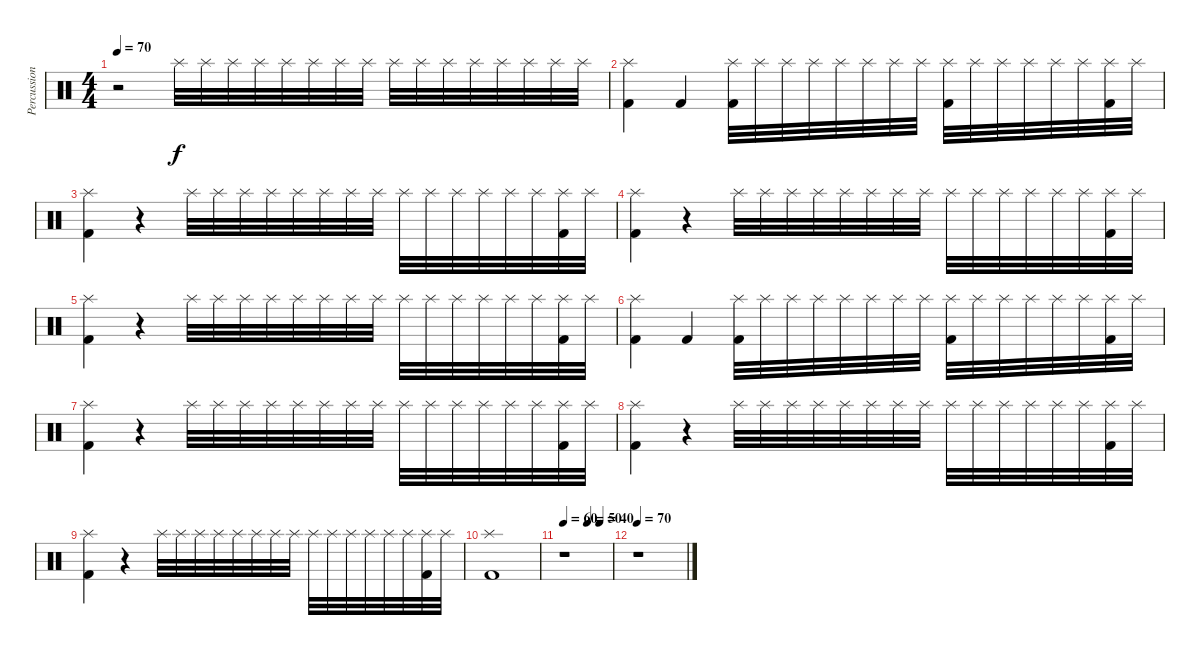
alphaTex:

\track ("Percussion" "Percussion") {instrument percussion}
\staff {score}
\articulation defaults
\ts (4 4)
\tempo 70
\clef neutral
\ks c
r.2{dy f volume 0} "Splash (hit)".32{volume 16} "Splash (hit)".32 "Splash (hit)".32 "Splash (hit)".32 "Splash (hit)".32 "Splash (hit)".32 "Splash (hit)".32 "Splash (hit)".32 "Splash (hit)".32 "Splash (hit)".32 "Splash (hit)".32 "Splash (hit)".32 "Splash (hit)".32 "Splash (hit)".32 "Splash (hit)".32 "Splash (hit)".32 |
("Splash (hit)" "Kick (hit) 2").4 "Kick (hit) 2".4{volume 0} ("Splash (hit)" "Kick (hit) 2").32{volume 16} "Splash (hit)".32 "Splash (hit)".32 "Splash (hit)".32 "Splash (hit)".32 "Splash (hit)".32 "Splash (hit)".32 "Splash (hit)".32 ("Splash (hit)" "Kick (hit) 2").32 "Splash (hit)".32 "Splash (hit)".32 "Splash (hit)".32 "Splash (hit)".32 "Splash (hit)".32 ("Splash (hit)" "Kick (hit) 2").32 "Splash (hit)".32 |
("Splash (hit)" "Kick (hit) 2").4 r.4{volume 0} "Splash (hit)".32{volume 16} "Splash (hit)".32 "Splash (hit)".32 "Splash (hit)".32 "Splash (hit)".32 "Splash (hit)".32 "Splash (hit)".32 "Splash (hit)".32 "Splash (hit)".32 "Splash (hit)".32 "Splash (hit)".32 "Splash (hit)".32 "Splash (hit)".32 "Splash (hit)".32 ("Splash (hit)" "Kick (hit) 2").32 "Splash (hit)".32 |
("Splash (hit)" "Kick (hit) 2").4 r.4{volume 0} "Splash (hit)".32{volume 16} "Splash (hit)".32 "Splash (hit)".32 "Splash (hit)".32 "Splash (hit)".32 "Splash (hit)".32 "Splash (hit)".32 "Splash (hit)".32 "Splash (hit)".32 "Splash (hit)".32 "Splash (hit)".32 "Splash (hit)".32 "Splash (hit)".32 "Splash (hit)".32 ("Splash (hit)" "Kick (hit) 2").32 "Splash (hit)".32 |
("Splash (hit)" "Kick (hit) 2").4 r.4{volume 0} "Splash (hit)".32{volume 16} "Splash (hit)".32 "Splash (hit)".32 "Splash (hit)".32 "Splash (hit)".32 "Splash (hit)".32 "Splash (hit)".32 "Splash (hit)".32 "Splash (hit)".32 "Splash (hit)".32 "Splash (hit)".32 "Splash (hit)".32 "Splash (hit)".32 "Splash (hit)".32 ("Splash (hit)" "Kick (hit) 2").32 "Splash (hit)".32 |
("Splash (hit)" "Kick (hit) 2").4 "Kick (hit) 2".4{volume 0} ("Splash (hit)" "Kick (hit) 2").32{volume 16} "Splash (hit)".32 "Splash (hit)".32 "Splash (hit)".32 "Splash (hit)".32 "Splash (hit)".32 "Splash (hit)".32 "Splash (hit)".32 ("Splash (hit)" "Kick (hit) 2").32 "Splash (hit)".32 "Splash (hit)".32 "Splash (hit)".32 "Splash (hit)".32 "Splash (hit)".32 ("Splash (hit)" "Kick (hit) 2").32 "Splash (hit)".32 |
("Splash (hit)" "Kick (hit) 2").4 r.4{volume 0} "Splash (hit)".32{volume 16} "Splash (hit)".32 "Splash (hit)".32 "Splash (hit)".32 "Splash (hit)".32 "Splash (hit)".32 "Splash (hit)".32 "Splash (hit)".32 "Splash (hit)".32 "Splash (hit)".32 "Splash (hit)".32 "Splash (hit)".32 "Splash (hit)".32 "Splash (hit)".32 ("Splash (hit)" "Kick (hit) 2").32 "Splash (hit)".32 |
("Splash (hit)" "Kick (hit) 2").4 r.4{volume 0} "Splash (hit)".32{volume 16} "Splash (hit)".32 "Splash (hit)".32 "Splash (hit)".32 "Splash (hit)".32 "Splash (hit)".32 "Splash (hit)".32 "Splash (hit)".32 "Splash (hit)".32 "Splash (hit)".32 "Splash (hit)".32 "Splash (hit)".32 "Splash (hit)".32 "Splash (hit)".32 ("Splash (hit)" "Kick (hit) 2").32 "Splash (hit)".32 |
("Splash (hit)" "Kick (hit) 2").4 r.4{volume 0} "Splash (hit)".32{volume 16} "Splash (hit)".32 "Splash (hit)".32 "Splash (hit)".32 "Splash (hit)".32 "Splash (hit)".32 "Splash (hit)".32 "Splash (hit)".32 "Splash (hit)".32 "Splash (hit)".32 "Splash (hit)".32 "Splash (hit)".32 "Splash (hit)".32 "Splash (hit)".32 ("Splash (hit)" "Kick (hit) 2").32 "Splash (hit)".32 |
("Splash (hit)" "Kick (hit) 2").1 |
\tempo 60
\tempo (50 0.5)
\tempo (40 0.75)
r.1 |
\tempo 70
r.1
